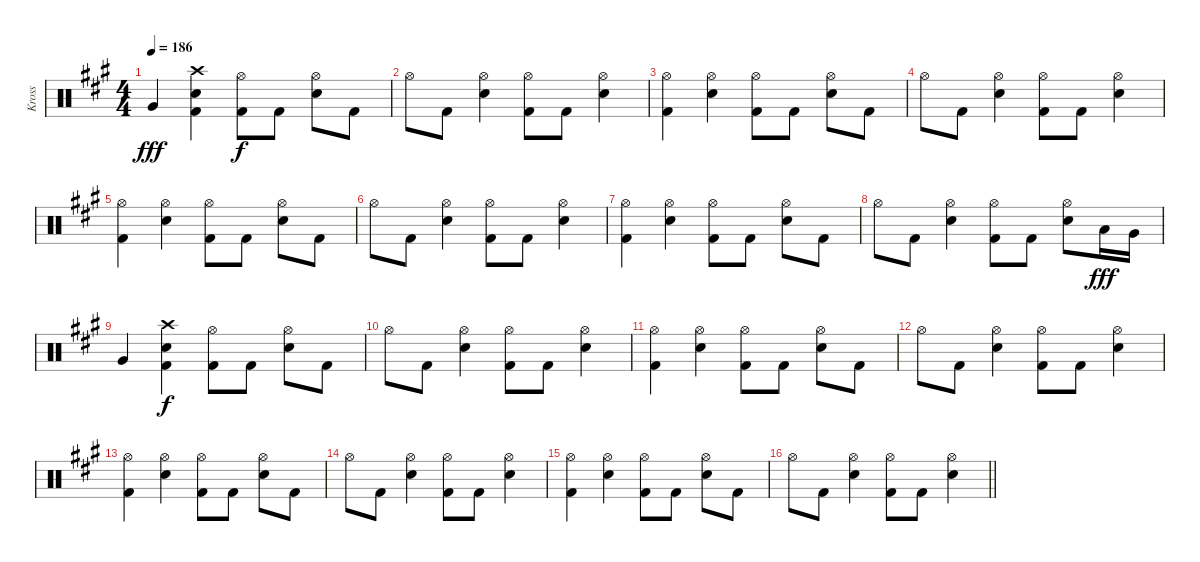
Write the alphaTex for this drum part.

\track ("Kross" "Kross") {instrument percussion}
\staff {score}
\articulation defaults
\ts (4 4)
\tempo 186
\clef neutral
\ks a "Very Low Tom (hit)".4{dy fff}
("Crash high (hit)" "Electric Snare (hit)" "Kick (hit) 2").4 ("Hi-Hat (open)" "Kick (hit) 2").8{dy f} "Kick (hit) 2".8 ("Hi-Hat (open)" "Electric Snare (hit)").8 "Kick (hit) 2".8 |
"Hi-Hat (open)".8 "Kick (hit) 2".8 ("Hi-Hat (open)" "Electric Snare (hit)").4 ("Hi-Hat (open)" "Kick (hit) 2").8 "Kick (hit) 2".8 ("Hi-Hat (open)" "Electric Snare (hit)").4 |
("Hi-Hat (open)" "Kick (hit) 2").4 ("Hi-Hat (open)" "Electric Snare (hit)").4 ("Hi-Hat (open)" "Kick (hit) 2").8 "Kick (hit) 2".8 ("Hi-Hat (open)" "Electric Snare (hit)").8 "Kick (hit) 2".8 |
"Hi-Hat (open)".8 "Kick (hit) 2".8 ("Hi-Hat (open)" "Electric Snare (hit)").4 ("Hi-Hat (open)" "Kick (hit) 2").8 "Kick (hit) 2".8 ("Hi-Hat (open)" "Electric Snare (hit)").4 |
("Hi-Hat (open)" "Kick (hit) 2").4 ("Hi-Hat (open)" "Electric Snare (hit)").4 ("Hi-Hat (open)" "Kick (hit) 2").8 "Kick (hit) 2".8 ("Hi-Hat (open)" "Electric Snare (hit)").8 "Kick (hit) 2".8 |
"Hi-Hat (open)".8 "Kick (hit) 2".8 ("Hi-Hat (open)" "Electric Snare (hit)").4 ("Hi-Hat (open)" "Kick (hit) 2").8 "Kick (hit) 2".8 ("Hi-Hat (open)" "Electric Snare (hit)").4 |
("Hi-Hat (open)" "Kick (hit) 2").4 ("Hi-Hat (open)" "Electric Snare (hit)").4 ("Hi-Hat (open)" "Kick (hit) 2").8 "Kick (hit) 2".8 ("Hi-Hat (open)" "Electric Snare (hit)").8 "Kick (hit) 2".8 |
"Hi-Hat (open)".8 "Kick (hit) 2".8 ("Hi-Hat (open)" "Electric Snare (hit)").4 ("Hi-Hat (open)" "Kick (hit) 2").8 "Kick (hit) 2".8 ("Hi-Hat (open)" "Electric Snare (hit)").8 "Low Floor Tom (hit)".16{dy fff} "Very Low Tom (hit)".16 |
"Very Low Tom (hit)".4 ("Crash high (hit)" "Electric Snare (hit)" "Kick (hit) 2").4{dy f} ("Hi-Hat (open)" "Kick (hit) 2").8 "Kick (hit) 2".8 ("Hi-Hat (open)" "Electric Snare (hit)").8 "Kick (hit) 2".8 |
"Hi-Hat (open)".8 "Kick (hit) 2".8 ("Hi-Hat (open)" "Electric Snare (hit)").4 ("Hi-Hat (open)" "Kick (hit) 2").8 "Kick (hit) 2".8 ("Hi-Hat (open)" "Electric Snare (hit)").4 |
("Hi-Hat (open)" "Kick (hit) 2").4 ("Hi-Hat (open)" "Electric Snare (hit)").4 ("Hi-Hat (open)" "Kick (hit) 2").8 "Kick (hit) 2".8 ("Hi-Hat (open)" "Electric Snare (hit)").8 "Kick (hit) 2".8 |
"Hi-Hat (open)".8 "Kick (hit) 2".8 ("Hi-Hat (open)" "Electric Snare (hit)").4 ("Hi-Hat (open)" "Kick (hit) 2").8 "Kick (hit) 2".8 ("Hi-Hat (open)" "Electric Snare (hit)").4 |
("Hi-Hat (open)" "Kick (hit) 2").4 ("Hi-Hat (open)" "Electric Snare (hit)").4 ("Hi-Hat (open)" "Kick (hit) 2").8 "Kick (hit) 2".8 ("Hi-Hat (open)" "Electric Snare (hit)").8 "Kick (hit) 2".8 |
"Hi-Hat (open)".8 "Kick (hit) 2".8 ("Hi-Hat (open)" "Electric Snare (hit)").4 ("Hi-Hat (open)" "Kick (hit) 2").8 "Kick (hit) 2".8 ("Hi-Hat (open)" "Electric Snare (hit)").4 |
("Hi-Hat (open)" "Kick (hit) 2").4 ("Hi-Hat (open)" "Electric Snare (hit)").4 ("Hi-Hat (open)" "Kick (hit) 2").8 "Kick (hit) 2".8 ("Hi-Hat (open)" "Electric Snare (hit)").8 "Kick (hit) 2".8 |
\barLineRight lightlight "Hi-Hat (open)".8 "Kick (hit) 2".8
("Hi-Hat (open)" "Electric Snare (hit)").4 ("Hi-Hat (open)" "Kick (hit) 2").8 "Kick (hit) 2".8 ("Hi-Hat (open)" "Electric Snare (hit)").4
